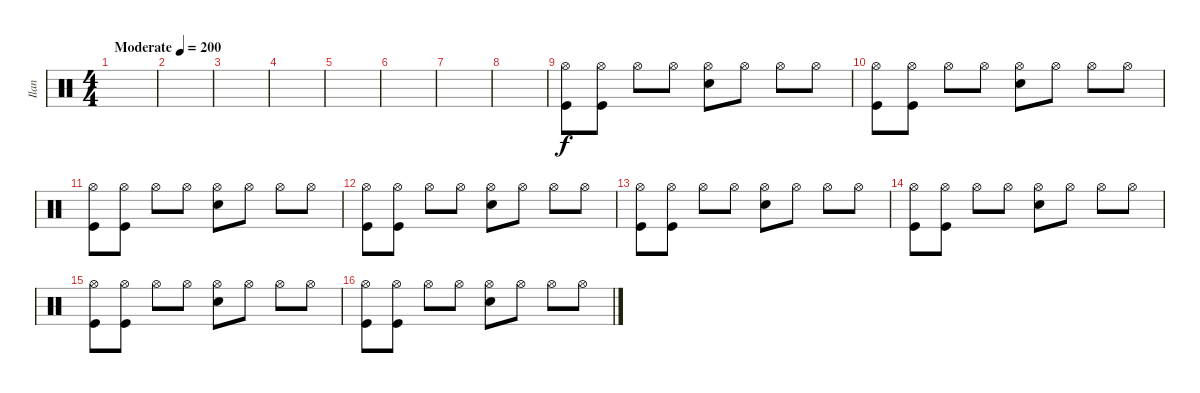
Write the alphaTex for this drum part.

\track ("Ilan" "Ilan") {instrument percussion}
\staff {score}
\articulation defaults
\ts (4 4)
\tempo (200 "Moderate")
\clef neutral
\ks c
|
|
|
|
|
|
|
|
("Hi-Hat (open)" "Kick (hit)").8 ("Hi-Hat (open)" "Kick (hit)").8 "Hi-Hat (open)".8 "Hi-Hat (open)".8 ("Hi-Hat (open)" "Electric Snare (hit)").8 "Hi-Hat (open)".8 "Hi-Hat (open)".8 "Hi-Hat (open)".8 |
("Hi-Hat (open)" "Kick (hit)").8 ("Hi-Hat (open)" "Kick (hit)").8 "Hi-Hat (open)".8 "Hi-Hat (open)".8 ("Hi-Hat (open)" "Electric Snare (hit)").8 "Hi-Hat (open)".8 "Hi-Hat (open)".8 "Hi-Hat (open)".8 |
("Hi-Hat (open)" "Kick (hit)").8 ("Hi-Hat (open)" "Kick (hit)").8 "Hi-Hat (open)".8 "Hi-Hat (open)".8 ("Hi-Hat (open)" "Electric Snare (hit)").8 "Hi-Hat (open)".8 "Hi-Hat (open)".8 "Hi-Hat (open)".8 |
("Hi-Hat (open)" "Kick (hit)").8 ("Hi-Hat (open)" "Kick (hit)").8 "Hi-Hat (open)".8 "Hi-Hat (open)".8 ("Hi-Hat (open)" "Electric Snare (hit)").8 "Hi-Hat (open)".8 "Hi-Hat (open)".8 "Hi-Hat (open)".8 |
("Hi-Hat (open)" "Kick (hit)").8 ("Hi-Hat (open)" "Kick (hit)").8 "Hi-Hat (open)".8 "Hi-Hat (open)".8 ("Hi-Hat (open)" "Electric Snare (hit)").8 "Hi-Hat (open)".8 "Hi-Hat (open)".8 "Hi-Hat (open)".8 |
("Hi-Hat (open)" "Kick (hit)").8 ("Hi-Hat (open)" "Kick (hit)").8 "Hi-Hat (open)".8 "Hi-Hat (open)".8 ("Hi-Hat (open)" "Electric Snare (hit)").8 "Hi-Hat (open)".8 "Hi-Hat (open)".8 "Hi-Hat (open)".8 |
("Hi-Hat (open)" "Kick (hit)").8 ("Hi-Hat (open)" "Kick (hit)").8 "Hi-Hat (open)".8 "Hi-Hat (open)".8 ("Hi-Hat (open)" "Electric Snare (hit)").8 "Hi-Hat (open)".8 "Hi-Hat (open)".8 "Hi-Hat (open)".8 |
("Hi-Hat (open)" "Kick (hit)").8 ("Hi-Hat (open)" "Kick (hit)").8 "Hi-Hat (open)".8 "Hi-Hat (open)".8 ("Hi-Hat (open)" "Electric Snare (hit)").8 "Hi-Hat (open)".8 "Hi-Hat (open)".8 "Hi-Hat (open)".8
